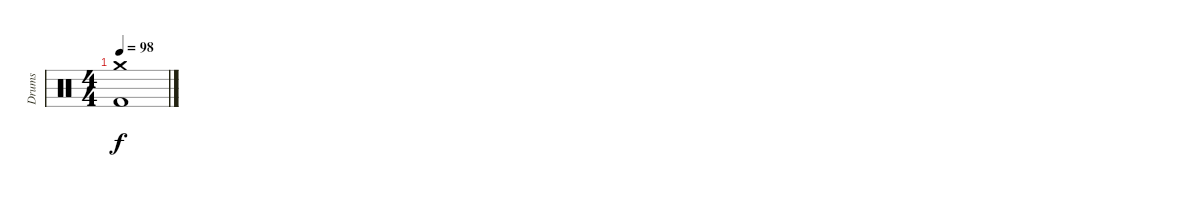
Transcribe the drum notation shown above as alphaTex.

\track ("Drums" "Drums") {instrument percussion}
\staff {score}
\articulation defaults
\ts (4 4)
\tempo 98
\clef neutral
\ks c
("Crash medium (hit)" "Kick (hit) 2").1{dy f}
